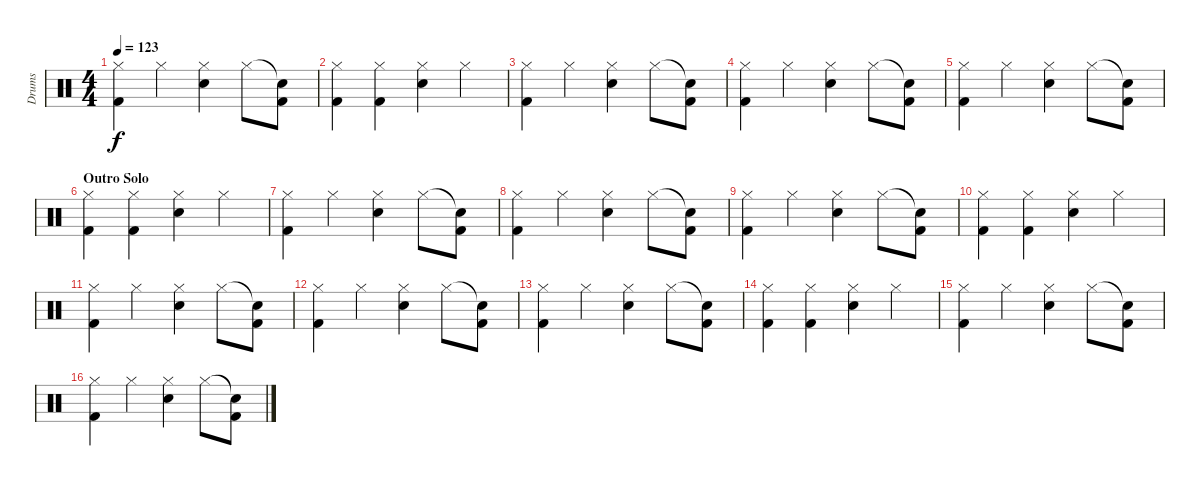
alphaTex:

\track ("Drums" "Drums") {instrument percussion}
\staff {score}
\articulation defaults
\ts (4 4)
\tempo 123
\clef neutral
\ks c
("Hi-Hat (closed)" "Kick (hit) 2").4{dy f} "Hi-Hat (closed)".4 ("Hi-Hat (closed)" "Electric Snare (hit)").4 "Hi-Hat (closed)".8 ("Snare (hit)"{t} "Kick (hit) 2").8 |
("Hi-Hat (closed)" "Kick (hit) 2").4 ("Hi-Hat (closed)" "Kick (hit) 2").4 ("Hi-Hat (closed)" "Electric Snare (hit)").4 "Hi-Hat (closed)".4 |
("Hi-Hat (closed)" "Kick (hit) 2").4 "Hi-Hat (closed)".4 ("Hi-Hat (closed)" "Electric Snare (hit)").4 "Hi-Hat (closed)".8 ("Snare (hit)"{t} "Kick (hit) 2").8 |
("Hi-Hat (closed)" "Kick (hit) 2").4 "Hi-Hat (closed)".4 ("Hi-Hat (closed)" "Electric Snare (hit)").4 "Hi-Hat (closed)".8 ("Snare (hit)"{t} "Kick (hit) 2").8 |
("Hi-Hat (closed)" "Kick (hit) 2").4 "Hi-Hat (closed)".4 ("Hi-Hat (closed)" "Electric Snare (hit)").4 "Hi-Hat (closed)".8 ("Snare (hit)"{t} "Kick (hit) 2").8 |
\section ("" "Outro Solo")
("Hi-Hat (closed)" "Kick (hit) 2").4 ("Hi-Hat (closed)" "Kick (hit) 2").4 ("Hi-Hat (closed)" "Electric Snare (hit)").4 "Hi-Hat (closed)".4 |
("Hi-Hat (closed)" "Kick (hit) 2").4 "Hi-Hat (closed)".4 ("Hi-Hat (closed)" "Electric Snare (hit)").4 "Hi-Hat (closed)".8 ("Snare (hit)"{t} "Kick (hit) 2").8 |
("Hi-Hat (closed)" "Kick (hit) 2").4 "Hi-Hat (closed)".4 ("Hi-Hat (closed)" "Electric Snare (hit)").4 "Hi-Hat (closed)".8 ("Snare (hit)"{t} "Kick (hit) 2").8 |
("Hi-Hat (closed)" "Kick (hit) 2").4 "Hi-Hat (closed)".4 ("Hi-Hat (closed)" "Electric Snare (hit)").4 "Hi-Hat (closed)".8 ("Snare (hit)"{t} "Kick (hit) 2").8 |
("Hi-Hat (closed)" "Kick (hit) 2").4 ("Hi-Hat (closed)" "Kick (hit) 2").4 ("Hi-Hat (closed)" "Electric Snare (hit)").4 "Hi-Hat (closed)".4 |
("Hi-Hat (closed)" "Kick (hit) 2").4 "Hi-Hat (closed)".4 ("Hi-Hat (closed)" "Electric Snare (hit)").4 "Hi-Hat (closed)".8 ("Snare (hit)"{t} "Kick (hit) 2").8 |
("Hi-Hat (closed)" "Kick (hit) 2").4 "Hi-Hat (closed)".4 ("Hi-Hat (closed)" "Electric Snare (hit)").4 "Hi-Hat (closed)".8 ("Snare (hit)"{t} "Kick (hit) 2").8 |
("Hi-Hat (closed)" "Kick (hit) 2").4 "Hi-Hat (closed)".4 ("Hi-Hat (closed)" "Electric Snare (hit)").4 "Hi-Hat (closed)".8 ("Snare (hit)"{t} "Kick (hit) 2").8 |
("Hi-Hat (closed)" "Kick (hit) 2").4 ("Hi-Hat (closed)" "Kick (hit) 2").4 ("Hi-Hat (closed)" "Electric Snare (hit)").4 "Hi-Hat (closed)".4 |
("Hi-Hat (closed)" "Kick (hit) 2").4 "Hi-Hat (closed)".4 ("Hi-Hat (closed)" "Electric Snare (hit)").4 "Hi-Hat (closed)".8 ("Snare (hit)"{t} "Kick (hit) 2").8 |
("Hi-Hat (closed)" "Kick (hit) 2").4 "Hi-Hat (closed)".4 ("Hi-Hat (closed)" "Electric Snare (hit)").4 "Hi-Hat (closed)".8 ("Snare (hit)"{t} "Kick (hit) 2").8
